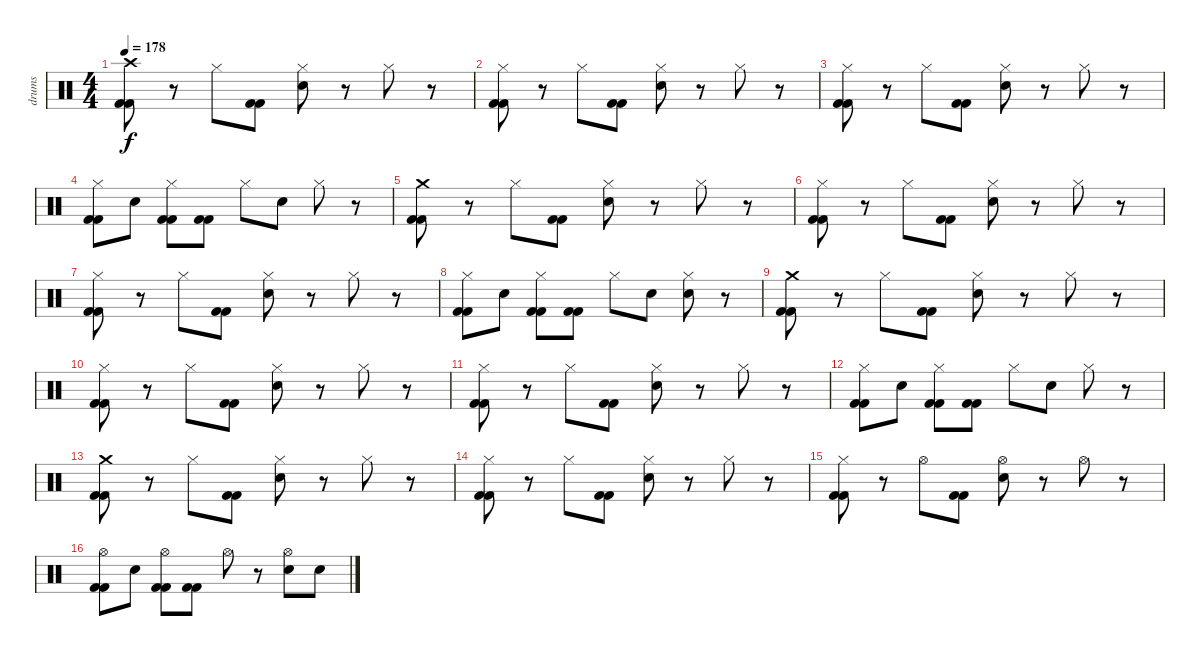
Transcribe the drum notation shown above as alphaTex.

\track ("drums" "drums") {instrument percussion}
\staff {score}
\articulation defaults
\ts (4 4)
\tempo 178
\clef neutral
\ks c
("Crash high (hit)" "Kick (hit) 2" "Kick (hit) 2").8{dy f} r.8 "Hi-Hat (closed)".8 ("Kick (hit) 2" "Kick (hit) 2").8 ("Hi-Hat (closed)" "Electric Snare (hit)").8 r.8 "Hi-Hat (closed)".8 r.8 |
("Hi-Hat (closed)" "Kick (hit) 2" "Kick (hit) 2").8 r.8 "Hi-Hat (closed)".8 ("Kick (hit) 2" "Kick (hit) 2").8 ("Hi-Hat (closed)" "Electric Snare (hit)").8 r.8 "Hi-Hat (closed)".8 r.8 |
("Hi-Hat (closed)" "Kick (hit) 2" "Kick (hit) 2").8 r.8 "Hi-Hat (closed)".8 ("Kick (hit) 2" "Kick (hit) 2").8 ("Hi-Hat (closed)" "Electric Snare (hit)").8 r.8 "Hi-Hat (closed)".8 r.8 |
("Hi-Hat (closed)" "Kick (hit) 2" "Kick (hit) 2").8 "Electric Snare (hit)".8 ("Hi-Hat (closed)" "Kick (hit) 2" "Kick (hit) 2").8 ("Kick (hit) 2" "Kick (hit) 2").8 "Hi-Hat (closed)".8 "Electric Snare (hit)".8 "Hi-Hat (closed)".8 r.8 |
("Crash medium (hit)" "Kick (hit) 2" "Kick (hit) 2").8 r.8 "Hi-Hat (closed)".8 ("Kick (hit) 2" "Kick (hit) 2").8 ("Hi-Hat (closed)" "Electric Snare (hit)").8 r.8 "Hi-Hat (closed)".8 r.8 |
("Hi-Hat (closed)" "Kick (hit) 2" "Kick (hit) 2").8 r.8 "Hi-Hat (closed)".8 ("Kick (hit) 2" "Kick (hit) 2").8 ("Hi-Hat (closed)" "Electric Snare (hit)").8 r.8 "Hi-Hat (closed)".8 r.8 |
("Hi-Hat (closed)" "Kick (hit) 2" "Kick (hit) 2").8 r.8 "Hi-Hat (closed)".8 ("Kick (hit) 2" "Kick (hit) 2").8 ("Hi-Hat (closed)" "Electric Snare (hit)").8 r.8 "Hi-Hat (closed)".8 r.8 |
("Hi-Hat (closed)" "Kick (hit) 2" "Kick (hit) 2").8 "Electric Snare (hit)".8 ("Hi-Hat (closed)" "Kick (hit) 2" "Kick (hit) 2").8 ("Kick (hit) 2" "Kick (hit) 2").8 "Hi-Hat (closed)".8 "Electric Snare (hit)".8 ("Hi-Hat (closed)" "Electric Snare (hit)").8 r.8 |
("Crash medium (hit)" "Kick (hit) 2" "Kick (hit) 2").8 r.8 "Hi-Hat (closed)".8 ("Kick (hit) 2" "Kick (hit) 2").8 ("Hi-Hat (closed)" "Electric Snare (hit)").8 r.8 "Hi-Hat (closed)".8 r.8 |
("Hi-Hat (closed)" "Kick (hit) 2" "Kick (hit) 2").8 r.8 "Hi-Hat (closed)".8 ("Kick (hit) 2" "Kick (hit) 2").8 ("Hi-Hat (closed)" "Electric Snare (hit)").8 r.8 "Hi-Hat (closed)".8 r.8 |
("Hi-Hat (closed)" "Kick (hit) 2" "Kick (hit) 2").8 r.8 "Hi-Hat (closed)".8 ("Kick (hit) 2" "Kick (hit) 2").8 ("Hi-Hat (closed)" "Electric Snare (hit)").8 r.8 "Hi-Hat (closed)".8 r.8 |
("Hi-Hat (closed)" "Kick (hit) 2" "Kick (hit) 2").8 "Electric Snare (hit)".8 ("Hi-Hat (closed)" "Kick (hit) 2" "Kick (hit) 2").8 ("Kick (hit) 2" "Kick (hit) 2").8 "Hi-Hat (closed)".8 "Electric Snare (hit)".8 "Hi-Hat (closed)".8 r.8 |
("Crash medium (hit)" "Kick (hit) 2" "Kick (hit) 2").8 r.8 "Hi-Hat (closed)".8 ("Kick (hit) 2" "Kick (hit) 2").8 ("Hi-Hat (closed)" "Electric Snare (hit)").8 r.8 "Hi-Hat (closed)".8 r.8 |
("Hi-Hat (closed)" "Kick (hit) 2" "Kick (hit) 2").8 r.8 "Hi-Hat (closed)".8 ("Kick (hit) 2" "Kick (hit) 2").8 ("Hi-Hat (closed)" "Electric Snare (hit)").8 r.8 "Hi-Hat (closed)".8 r.8 |
("Hi-Hat (closed)" "Kick (hit) 2" "Kick (hit) 2").8 r.8 "Hi-Hat (open)".8 ("Kick (hit) 2" "Kick (hit) 2").8 ("Hi-Hat (open)" "Electric Snare (hit)").8 r.8 "Hi-Hat (open)".8 r.8 |
("Hi-Hat (open)" "Kick (hit) 2" "Kick (hit) 2").8 "Electric Snare (hit)".8 ("Hi-Hat (open)" "Kick (hit) 2" "Kick (hit) 2").8 ("Kick (hit) 2" "Kick (hit) 2").8 "Hi-Hat (open)".8 r.8 ("Hi-Hat (open)" "Electric Snare (hit)").8 "Electric Snare (hit)".8
